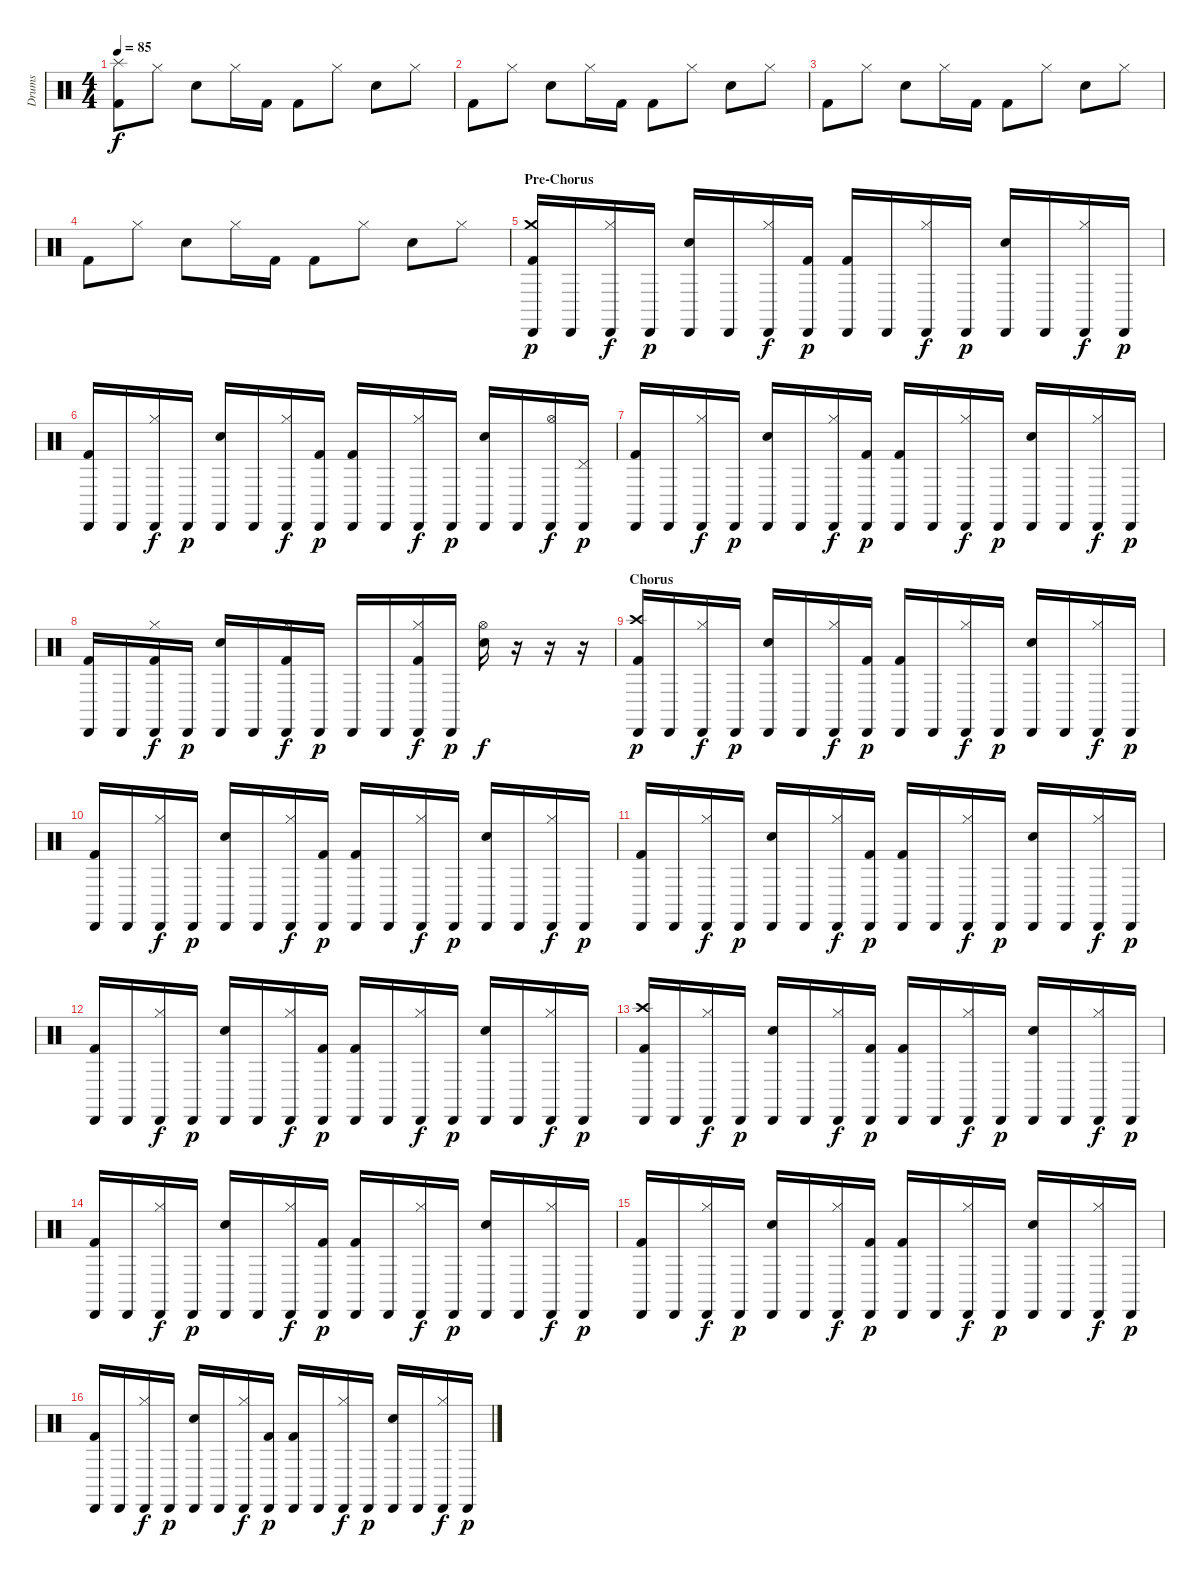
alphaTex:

\track ("Drums" "Drums") {instrument percussion}
\staff {score}
\articulation defaults
\ts (4 4)
\tempo 85
\clef neutral
\ks c
("Splash (hit)" "Kick (hit) 2").8{dy f} "Hi-Hat (closed)".8 "Electric Snare (hit)".8 "Hi-Hat (closed)".16 "Kick (hit) 2".16 "Kick (hit) 2".8 "Hi-Hat (closed)".8 "Electric Snare (hit)".8 "Hi-Hat (closed)".8 |
"Kick (hit) 2".8 "Hi-Hat (closed)".8 "Electric Snare (hit)".8 "Hi-Hat (closed)".16 "Kick (hit) 2".16 "Kick (hit) 2".8 "Hi-Hat (closed)".8 "Electric Snare (hit)".8 "Hi-Hat (closed)".8 |
"Kick (hit) 2".8 "Hi-Hat (closed)".8 "Electric Snare (hit)".8 "Hi-Hat (closed)".16 "Kick (hit) 2".16 "Kick (hit) 2".8 "Hi-Hat (closed)".8 "Electric Snare (hit)".8 "Hi-Hat (closed)".8 |
"Kick (hit) 2".8 "Hi-Hat (closed)".8 "Electric Snare (hit)".8 "Hi-Hat (closed)".16 "Kick (hit) 2".16 "Kick (hit) 2".8 "Hi-Hat (closed)".8 "Electric Snare (hit)".8 "Hi-Hat (closed)".8 |
\section ("" "Pre-Chorus")
("Cabasa (hit)" "Crash medium (hit)" "Kick (hit) 2").16{dy p} "Cabasa (hit)".16 ("Cabasa (hit)" "Hi-Hat (closed)").16{dy f} "Cabasa (hit)".16{dy p} ("Cabasa (hit)" "Electric Snare (hit)").16 "Cabasa (hit)".16 ("Cabasa (hit)" "Hi-Hat (closed)").16{dy f} ("Cabasa (hit)" "Kick (hit) 2").16{dy p} ("Cabasa (hit)" "Kick (hit) 2").16 "Cabasa (hit)".16 ("Cabasa (hit)" "Hi-Hat (closed)").16{dy f} "Cabasa (hit)".16{dy p} ("Cabasa (hit)" "Electric Snare (hit)").16 "Cabasa (hit)".16 ("Cabasa (hit)" "Hi-Hat (closed)").16{dy f} "Cabasa (hit)".16{dy p} |
("Cabasa (hit)" "Kick (hit) 2").16 "Cabasa (hit)".16 ("Cabasa (hit)" "Hi-Hat (closed)").16{dy f} "Cabasa (hit)".16{dy p} ("Cabasa (hit)" "Electric Snare (hit)").16 "Cabasa (hit)".16 ("Cabasa (hit)" "Hi-Hat (closed)").16{dy f} ("Cabasa (hit)" "Kick (hit) 2").16{dy p} ("Cabasa (hit)" "Kick (hit) 2").16 "Cabasa (hit)".16 ("Cabasa (hit)" "Hi-Hat (closed)").16{dy f} "Cabasa (hit)".16{dy p} ("Cabasa (hit)" "Electric Snare (hit)").16 "Cabasa (hit)".16 ("Cabasa (hit)" "Hi-Hat (open)").16{dy f} ("Cabasa (hit)" "Pedal Hi-Hat (hit)").16{dy p} |
("Cabasa (hit)" "Kick (hit) 2").16 "Cabasa (hit)".16 ("Cabasa (hit)" "Hi-Hat (closed)").16{dy f} "Cabasa (hit)".16{dy p} ("Cabasa (hit)" "Electric Snare (hit)").16 "Cabasa (hit)".16 ("Cabasa (hit)" "Hi-Hat (closed)").16{dy f} ("Cabasa (hit)" "Kick (hit) 2").16{dy p} ("Cabasa (hit)" "Kick (hit) 2").16 "Cabasa (hit)".16 ("Cabasa (hit)" "Hi-Hat (closed)").16{dy f} "Cabasa (hit)".16{dy p} ("Cabasa (hit)" "Electric Snare (hit)").16 "Cabasa (hit)".16 ("Cabasa (hit)" "Hi-Hat (closed)").16{dy f} "Cabasa (hit)".16{dy p} |
("Cabasa (hit)" "Kick (hit) 2").16 "Cabasa (hit)".16 ("Cabasa (hit)" "Hi-Hat (closed)" "Kick (hit) 2").16{dy f} "Cabasa (hit)".16{dy p} ("Cabasa (hit)" "Electric Snare (hit)").16 "Cabasa (hit)".16 ("Cabasa (hit)" "Hi-Hat (closed)" "Kick (hit) 2").16{dy f} "Cabasa (hit)".16{dy p} "Cabasa (hit)".16 "Cabasa (hit)".16 ("Cabasa (hit)" "Hi-Hat (closed)" "Kick (hit) 2").16{dy f} "Cabasa (hit)".16{dy p} ("Hi-Hat (open)" "Electric Snare (hit)").16{dy f} r.16 r.16 r.16 |
\section ("" "Chorus")
("Cabasa (hit)" "Crash high (hit)" "Kick (hit) 2").16{dy p} "Cabasa (hit)".16 ("Cabasa (hit)" "Hi-Hat (closed)").16{dy f} "Cabasa (hit)".16{dy p} ("Cabasa (hit)" "Electric Snare (hit)").16 "Cabasa (hit)".16 ("Cabasa (hit)" "Hi-Hat (closed)").16{dy f} ("Cabasa (hit)" "Kick (hit) 2").16{dy p} ("Cabasa (hit)" "Kick (hit) 2").16 "Cabasa (hit)".16 ("Cabasa (hit)" "Hi-Hat (closed)").16{dy f} "Cabasa (hit)".16{dy p} ("Cabasa (hit)" "Electric Snare (hit)").16 "Cabasa (hit)".16 ("Cabasa (hit)" "Hi-Hat (closed)").16{dy f} "Cabasa (hit)".16{dy p} |
("Cabasa (hit)" "Kick (hit) 2").16 "Cabasa (hit)".16 ("Cabasa (hit)" "Hi-Hat (closed)").16{dy f} "Cabasa (hit)".16{dy p} ("Cabasa (hit)" "Electric Snare (hit)").16 "Cabasa (hit)".16 ("Cabasa (hit)" "Hi-Hat (closed)").16{dy f} ("Cabasa (hit)" "Kick (hit) 2").16{dy p} ("Cabasa (hit)" "Kick (hit) 2").16 "Cabasa (hit)".16 ("Cabasa (hit)" "Hi-Hat (closed)").16{dy f} "Cabasa (hit)".16{dy p} ("Cabasa (hit)" "Electric Snare (hit)").16 "Cabasa (hit)".16 ("Cabasa (hit)" "Hi-Hat (closed)").16{dy f} "Cabasa (hit)".16{dy p} |
("Cabasa (hit)" "Kick (hit) 2").16 "Cabasa (hit)".16 ("Cabasa (hit)" "Hi-Hat (closed)").16{dy f} "Cabasa (hit)".16{dy p} ("Cabasa (hit)" "Electric Snare (hit)").16 "Cabasa (hit)".16 ("Cabasa (hit)" "Hi-Hat (closed)").16{dy f} ("Cabasa (hit)" "Kick (hit) 2").16{dy p} ("Cabasa (hit)" "Kick (hit) 2").16 "Cabasa (hit)".16 ("Cabasa (hit)" "Hi-Hat (closed)").16{dy f} "Cabasa (hit)".16{dy p} ("Cabasa (hit)" "Electric Snare (hit)").16 "Cabasa (hit)".16 ("Cabasa (hit)" "Hi-Hat (closed)").16{dy f} "Cabasa (hit)".16{dy p} |
("Cabasa (hit)" "Kick (hit) 2").16 "Cabasa (hit)".16 ("Cabasa (hit)" "Hi-Hat (closed)").16{dy f} "Cabasa (hit)".16{dy p} ("Cabasa (hit)" "Electric Snare (hit)").16 "Cabasa (hit)".16 ("Cabasa (hit)" "Hi-Hat (closed)").16{dy f} ("Cabasa (hit)" "Kick (hit) 2").16{dy p} ("Cabasa (hit)" "Kick (hit) 2").16 "Cabasa (hit)".16 ("Cabasa (hit)" "Hi-Hat (closed)").16{dy f} "Cabasa (hit)".16{dy p} ("Cabasa (hit)" "Electric Snare (hit)").16 "Cabasa (hit)".16 ("Cabasa (hit)" "Hi-Hat (closed)").16{dy f} "Cabasa (hit)".16{dy p} |
("Cabasa (hit)" "Crash high (hit)" "Kick (hit) 2").16 "Cabasa (hit)".16 ("Cabasa (hit)" "Hi-Hat (closed)").16{dy f} "Cabasa (hit)".16{dy p} ("Cabasa (hit)" "Electric Snare (hit)").16 "Cabasa (hit)".16 ("Cabasa (hit)" "Hi-Hat (closed)").16{dy f} ("Cabasa (hit)" "Kick (hit) 2").16{dy p} ("Cabasa (hit)" "Kick (hit) 2").16 "Cabasa (hit)".16 ("Cabasa (hit)" "Hi-Hat (closed)").16{dy f} "Cabasa (hit)".16{dy p} ("Cabasa (hit)" "Electric Snare (hit)").16 "Cabasa (hit)".16 ("Cabasa (hit)" "Hi-Hat (closed)").16{dy f} "Cabasa (hit)".16{dy p} |
("Cabasa (hit)" "Kick (hit) 2").16 "Cabasa (hit)".16 ("Cabasa (hit)" "Hi-Hat (closed)").16{dy f} "Cabasa (hit)".16{dy p} ("Cabasa (hit)" "Electric Snare (hit)").16 "Cabasa (hit)".16 ("Cabasa (hit)" "Hi-Hat (closed)").16{dy f} ("Cabasa (hit)" "Kick (hit) 2").16{dy p} ("Cabasa (hit)" "Kick (hit) 2").16 "Cabasa (hit)".16 ("Cabasa (hit)" "Hi-Hat (closed)").16{dy f} "Cabasa (hit)".16{dy p} ("Cabasa (hit)" "Electric Snare (hit)").16 "Cabasa (hit)".16 ("Cabasa (hit)" "Hi-Hat (closed)").16{dy f} "Cabasa (hit)".16{dy p} |
("Cabasa (hit)" "Kick (hit) 2").16 "Cabasa (hit)".16 ("Cabasa (hit)" "Hi-Hat (closed)").16{dy f} "Cabasa (hit)".16{dy p} ("Cabasa (hit)" "Electric Snare (hit)").16 "Cabasa (hit)".16 ("Cabasa (hit)" "Hi-Hat (closed)").16{dy f} ("Cabasa (hit)" "Kick (hit) 2").16{dy p} ("Cabasa (hit)" "Kick (hit) 2").16 "Cabasa (hit)".16 ("Cabasa (hit)" "Hi-Hat (closed)").16{dy f} "Cabasa (hit)".16{dy p} ("Cabasa (hit)" "Electric Snare (hit)").16 "Cabasa (hit)".16 ("Cabasa (hit)" "Hi-Hat (closed)").16{dy f} "Cabasa (hit)".16{dy p} |
("Cabasa (hit)" "Kick (hit) 2").16 "Cabasa (hit)".16 ("Cabasa (hit)" "Hi-Hat (closed)").16{dy f} "Cabasa (hit)".16{dy p} ("Cabasa (hit)" "Electric Snare (hit)").16 "Cabasa (hit)".16 ("Cabasa (hit)" "Hi-Hat (closed)").16{dy f} ("Cabasa (hit)" "Kick (hit) 2").16{dy p} ("Cabasa (hit)" "Kick (hit) 2").16 "Cabasa (hit)".16 ("Cabasa (hit)" "Hi-Hat (closed)").16{dy f} "Cabasa (hit)".16{dy p} ("Cabasa (hit)" "Electric Snare (hit)").16 "Cabasa (hit)".16 ("Cabasa (hit)" "Hi-Hat (closed)").16{dy f} "Cabasa (hit)".16{dy p}
